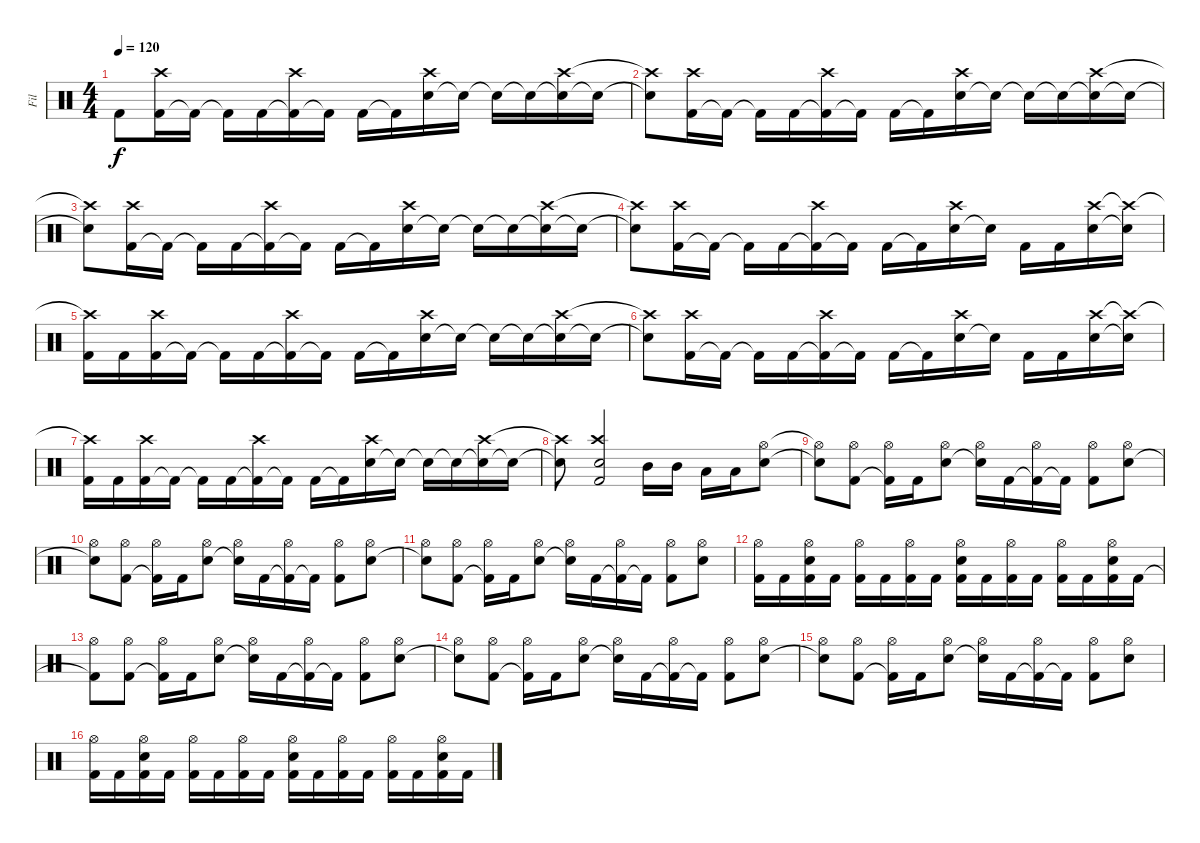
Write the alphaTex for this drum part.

\track ("Fil" "Fil") {instrument percussion}
\staff {score}
\articulation defaults
\ts (4 4)
\tempo 120
\clef neutral
\ks c "Kick (hit) 2".8{dy f}
("Kick (hit) 2" "Crash high (hit)").16 "Kick (hit) 2"{t}.16 "Kick (hit) 2"{t}.16 "Kick (hit) 2".16 ("Kick (hit) 2"{t} "Crash high (hit)").16 "Kick (hit) 2"{t}.16 "Kick (hit) 2".16 "Kick (hit) 2"{t}.16 ("Snare (hit) 2" "Crash high (hit)").16 "Snare (hit) 2"{t}.16 "Snare (hit) 2"{t}.16 "Snare (hit) 2"{t}.16 ("Snare (hit) 2"{t} "Crash high (hit)").16 "Snare (hit) 2"{t}.16 |
("Snare (hit) 2"{t} "Crash high (hit)"{t}).8 ("Kick (hit) 2" "Crash high (hit)").16 "Kick (hit) 2"{t}.16 "Kick (hit) 2"{t}.16 "Kick (hit) 2".16 ("Kick (hit) 2"{t} "Crash high (hit)").16 "Kick (hit) 2"{t}.16 "Kick (hit) 2".16 "Kick (hit) 2"{t}.16 ("Snare (hit) 2" "Crash high (hit)").16 "Snare (hit) 2"{t}.16 "Snare (hit) 2"{t}.16 "Snare (hit) 2"{t}.16 ("Snare (hit) 2"{t} "Crash high (hit)").16 "Snare (hit) 2"{t}.16 |
("Snare (hit) 2"{t} "Crash high (hit)"{t}).8 ("Kick (hit) 2" "Crash high (hit)").16 "Kick (hit) 2"{t}.16 "Kick (hit) 2"{t}.16 "Kick (hit) 2".16 ("Kick (hit) 2"{t} "Crash high (hit)").16 "Kick (hit) 2"{t}.16 "Kick (hit) 2".16 "Kick (hit) 2"{t}.16 ("Snare (hit) 2" "Crash high (hit)").16 "Snare (hit) 2"{t}.16 "Snare (hit) 2"{t}.16 "Snare (hit) 2"{t}.16 ("Snare (hit) 2"{t} "Crash high (hit)").16 "Snare (hit) 2"{t}.16 |
("Snare (hit) 2"{t} "Crash high (hit)"{t}).8 ("Kick (hit) 2" "Crash high (hit)").16 "Kick (hit) 2"{t}.16 "Kick (hit) 2"{t}.16 "Kick (hit) 2".16 ("Kick (hit) 2"{t} "Crash high (hit)").16 "Kick (hit) 2"{t}.16 "Kick (hit) 2".16 "Kick (hit) 2"{t}.16 ("Snare (hit) 2" "Crash high (hit)").16 "Snare (hit) 2"{t}.16 "Kick (hit) 2".16 "Kick (hit) 2".16 ("Snare (hit) 2" "Crash high (hit)").16 ("Snare (hit) 2"{t} "Crash high (hit)"{t}).16 |
("Kick (hit) 2" "Crash high (hit)"{t}).16 "Kick (hit) 2".16 ("Kick (hit) 2" "Crash high (hit)").16 "Kick (hit) 2"{t}.16 "Kick (hit) 2"{t}.16 "Kick (hit) 2".16 ("Kick (hit) 2"{t} "Crash high (hit)").16 "Kick (hit) 2"{t}.16 "Kick (hit) 2".16 "Kick (hit) 2"{t}.16 ("Snare (hit) 2" "Crash high (hit)").16 "Snare (hit) 2"{t}.16 "Snare (hit) 2"{t}.16 "Snare (hit) 2"{t}.16 ("Snare (hit) 2"{t} "Crash high (hit)").16 "Snare (hit) 2"{t}.16 |
("Snare (hit) 2"{t} "Crash high (hit)"{t}).8 ("Kick (hit) 2" "Crash high (hit)").16 "Kick (hit) 2"{t}.16 "Kick (hit) 2"{t}.16 "Kick (hit) 2".16 ("Kick (hit) 2"{t} "Crash high (hit)").16 "Kick (hit) 2"{t}.16 "Kick (hit) 2".16 "Kick (hit) 2"{t}.16 ("Snare (hit) 2" "Crash high (hit)").16 "Snare (hit) 2"{t}.16 "Kick (hit) 2".16 "Kick (hit) 2".16 ("Snare (hit) 2" "Crash high (hit)").16 ("Snare (hit) 2"{t} "Crash high (hit)"{t}).16 |
("Kick (hit) 2" "Crash high (hit)"{t}).16 "Kick (hit) 2".16 ("Kick (hit) 2" "Crash high (hit)").16 "Kick (hit) 2"{t}.16 "Kick (hit) 2"{t}.16 "Kick (hit) 2".16 ("Kick (hit) 2"{t} "Crash high (hit)").16 "Kick (hit) 2"{t}.16 "Kick (hit) 2".16 "Kick (hit) 2"{t}.16 ("Snare (hit) 2" "Crash high (hit)").16 "Snare (hit) 2"{t}.16 "Snare (hit) 2"{t}.16 "Snare (hit) 2"{t}.16 ("Snare (hit) 2"{t} "Crash high (hit)").16 "Snare (hit) 2"{t}.16 |
("Snare (hit) 2"{t} "Crash high (hit)"{t}).8 ("Kick (hit) 2" "Crash high (hit)" "Snare (hit) 2").2 "Mid Tom (hit)".16 "Mid Tom (hit)".16 "Low Tom (hit)".16 "Low Tom (hit)".16 ("Snare (hit) 2" "Hi-Hat (open)").8 |
("Snare (hit) 2"{t} "Hi-Hat (open)"{t}).8 ("Kick (hit) 2" "Hi-Hat (open)").8 ("Kick (hit) 2"{t} "Hi-Hat (open)").16 "Kick (hit) 2".16 ("Snare (hit) 2" "Hi-Hat (open)").8 ("Snare (hit) 2"{t} "Hi-Hat (open)").16 "Kick (hit) 2".16 ("Kick (hit) 2"{t} "Hi-Hat (open)").16 "Kick (hit) 2"{t}.16 ("Kick (hit) 2" "Hi-Hat (open)").8 ("Snare (hit) 2" "Hi-Hat (open)").8 |
("Snare (hit) 2"{t} "Hi-Hat (open)").8 ("Kick (hit) 2" "Hi-Hat (open)").8 ("Kick (hit) 2"{t} "Hi-Hat (open)").16 "Kick (hit) 2".16 ("Snare (hit) 2" "Hi-Hat (open)").8 ("Snare (hit) 2"{t} "Hi-Hat (open)").16 "Kick (hit) 2".16 ("Kick (hit) 2"{t} "Hi-Hat (open)").16 "Kick (hit) 2"{t}.16 ("Kick (hit) 2" "Hi-Hat (open)").8 ("Snare (hit) 2" "Hi-Hat (open)").8 |
("Snare (hit) 2"{t} "Hi-Hat (open)").8 ("Kick (hit) 2" "Hi-Hat (open)").8 ("Kick (hit) 2"{t} "Hi-Hat (open)").16 "Kick (hit) 2".16 ("Snare (hit) 2" "Hi-Hat (open)").8 ("Snare (hit) 2"{t} "Hi-Hat (open)").16 "Kick (hit) 2".16 ("Kick (hit) 2"{t} "Hi-Hat (open)").16 "Kick (hit) 2"{t}.16 ("Kick (hit) 2" "Hi-Hat (open)").8 ("Snare (hit) 2" "Hi-Hat (open)").8 |
("Kick (hit) 2" "Hi-Hat (open)").16 "Kick (hit) 2".16 ("Kick (hit) 2" "Snare (hit) 2" "Hi-Hat (open)").16 "Kick (hit) 2".16 ("Kick (hit) 2" "Hi-Hat (open)").16 "Kick (hit) 2".16 ("Kick (hit) 2" "Hi-Hat (open)").16 "Kick (hit) 2".16 ("Kick (hit) 2" "Snare (hit) 2" "Hi-Hat (open)").16 "Kick (hit) 2".16 ("Kick (hit) 2" "Hi-Hat (open)").16 "Kick (hit) 2".16 ("Kick (hit) 2" "Hi-Hat (open)").16 "Kick (hit) 2".16 ("Kick (hit) 2" "Snare (hit) 2" "Hi-Hat (open)").16 "Kick (hit) 2".16 |
("Kick (hit) 2"{t} "Hi-Hat (open)").8 ("Kick (hit) 2" "Hi-Hat (open)").8 ("Kick (hit) 2"{t} "Hi-Hat (open)").16 "Kick (hit) 2".16 ("Snare (hit) 2" "Hi-Hat (open)").8 ("Snare (hit) 2"{t} "Hi-Hat (open)").16 "Kick (hit) 2".16 ("Kick (hit) 2"{t} "Hi-Hat (open)").16 "Kick (hit) 2"{t}.16 ("Kick (hit) 2" "Hi-Hat (open)").8 ("Snare (hit) 2" "Hi-Hat (open)").8 |
("Snare (hit) 2"{t} "Hi-Hat (open)").8 ("Kick (hit) 2" "Hi-Hat (open)").8 ("Kick (hit) 2"{t} "Hi-Hat (open)").16 "Kick (hit) 2".16 ("Snare (hit) 2" "Hi-Hat (open)").8 ("Snare (hit) 2"{t} "Hi-Hat (open)").16 "Kick (hit) 2".16 ("Kick (hit) 2"{t} "Hi-Hat (open)").16 "Kick (hit) 2"{t}.16 ("Kick (hit) 2" "Hi-Hat (open)").8 ("Snare (hit) 2" "Hi-Hat (open)").8 |
("Snare (hit) 2"{t} "Hi-Hat (open)").8 ("Kick (hit) 2" "Hi-Hat (open)").8 ("Kick (hit) 2"{t} "Hi-Hat (open)").16 "Kick (hit) 2".16 ("Snare (hit) 2" "Hi-Hat (open)").8 ("Snare (hit) 2"{t} "Hi-Hat (open)").16 "Kick (hit) 2".16 ("Kick (hit) 2"{t} "Hi-Hat (open)").16 "Kick (hit) 2"{t}.16 ("Kick (hit) 2" "Hi-Hat (open)").8 ("Snare (hit) 2" "Hi-Hat (open)").8 |
("Kick (hit) 2" "Hi-Hat (open)").16 "Kick (hit) 2".16 ("Kick (hit) 2" "Snare (hit) 2" "Hi-Hat (open)").16 "Kick (hit) 2".16 ("Kick (hit) 2" "Hi-Hat (open)").16 "Kick (hit) 2".16 ("Kick (hit) 2" "Hi-Hat (open)").16 "Kick (hit) 2".16 ("Kick (hit) 2" "Snare (hit) 2" "Hi-Hat (open)").16 "Kick (hit) 2".16 ("Kick (hit) 2" "Hi-Hat (open)").16 "Kick (hit) 2".16 ("Kick (hit) 2" "Hi-Hat (open)").16 "Kick (hit) 2".16 ("Kick (hit) 2" "Snare (hit) 2" "Hi-Hat (open)").16 "Kick (hit) 2".16
